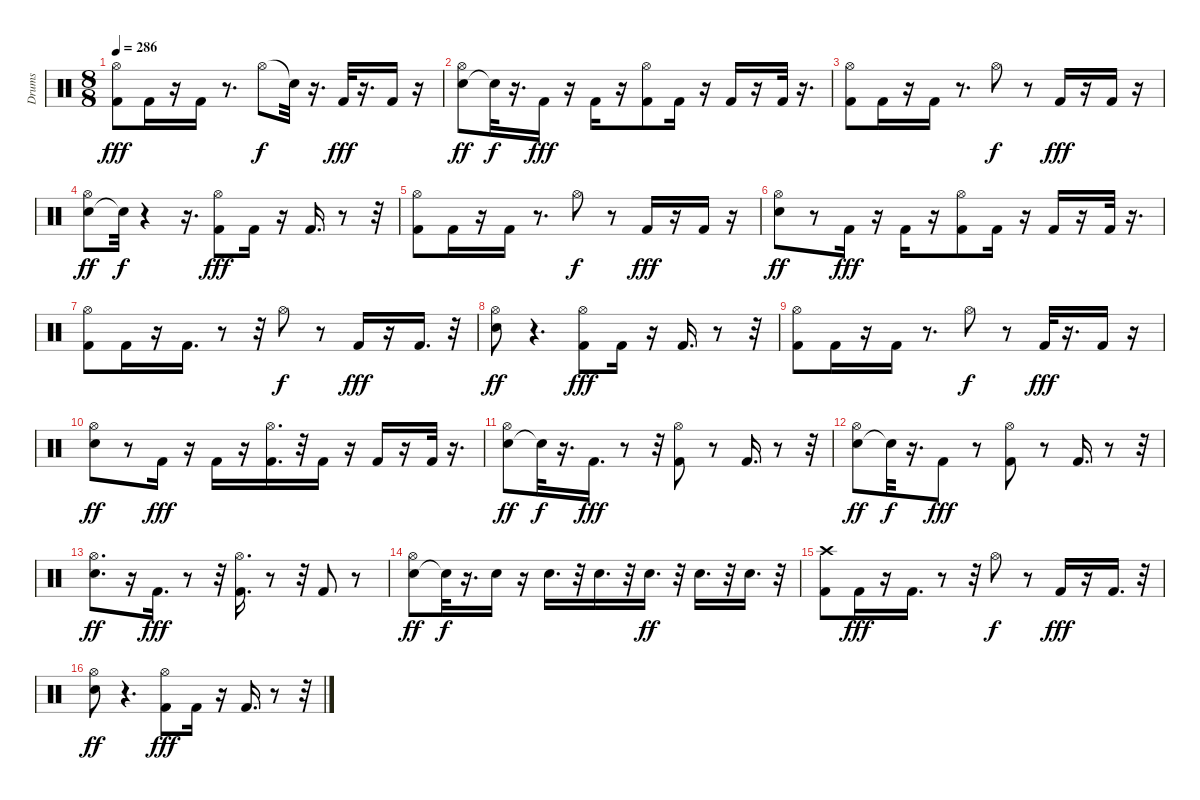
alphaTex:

\track ("Drums" "Drums") {instrument percussion}
\staff {score}
\articulation defaults
\ts (8 8)
\tempo 286
\clef neutral
\ks c
("Kick (hit) 2" "Hi-Hat (open)").8{dy fff} "Kick (hit) 2".16 r.16 "Kick (hit) 2".16 r.8{d} "Hi-Hat (open)".8{dy f} "Snare (hit)"{t}.32 r.16{d} "Kick (hit) 2".32{dy fff} r.16{d} "Kick (hit) 2".16 r.16 |
("Snare (hit) 2" "Hi-Hat (open)").8{dy ff} "Snare (hit)"{t}.32{dy f} r.16{d} "Kick (hit) 2".16{dy fff} r.16 "Kick (hit) 2".16 r.16 ("Kick (hit) 2" "Hi-Hat (open)").8 "Kick (hit) 2".16 r.16 "Kick (hit) 2".16 r.16 "Kick (hit) 2".32 r.16{d} |
("Kick (hit) 2" "Hi-Hat (open)").8 "Kick (hit) 2".16 r.16 "Kick (hit) 2".16 r.8{d} "Hi-Hat (open)".8{dy f} r.8 "Kick (hit) 2".16{dy fff} r.16 "Kick (hit) 2".16 r.16 |
("Snare (hit) 2" "Hi-Hat (open)").8{dy ff} "Snare (hit)"{t}.32{dy f} r.4 r.16{d} ("Kick (hit) 2" "Hi-Hat (open)").8{dy fff} "Kick (hit) 2".16 r.16 "Kick (hit) 2".16{d} r.8 r.32 |
("Kick (hit) 2" "Hi-Hat (open)").8 "Kick (hit) 2".16 r.16 "Kick (hit) 2".16 r.8{d} "Hi-Hat (open)".8{dy f} r.8 "Kick (hit) 2".16{dy fff} r.16 "Kick (hit) 2".16 r.16 |
("Snare (hit) 2" "Hi-Hat (open)").8{dy ff} r.8 "Kick (hit) 2".16{dy fff} r.16 "Kick (hit) 2".16 r.16 ("Kick (hit) 2" "Hi-Hat (open)").8 "Kick (hit) 2".16 r.16 "Kick (hit) 2".16 r.16 "Kick (hit) 2".32 r.16{d} |
("Kick (hit) 2" "Hi-Hat (open)").8 "Kick (hit) 2".16 r.16 "Kick (hit) 2".16{d} r.8 r.32 "Hi-Hat (open)".8{dy f} r.8 "Kick (hit) 2".16{dy fff} r.16 "Kick (hit) 2".16{d} r.32 |
("Snare (hit) 2" "Hi-Hat (open)").8{dy ff} r.4{d} ("Kick (hit) 2" "Hi-Hat (open)").8{dy fff} "Kick (hit) 2".16 r.16 "Kick (hit) 2".16{d} r.8 r.32 |
("Kick (hit) 2" "Hi-Hat (open)").8 "Kick (hit) 2".16 r.16 "Kick (hit) 2".16 r.8{d} "Hi-Hat (open)".8{dy f} r.8 "Kick (hit) 2".32{dy fff} r.16{d} "Kick (hit) 2".16 r.16 |
("Snare (hit) 2" "Hi-Hat (open)").8{dy ff} r.8 "Kick (hit) 2".16{dy fff} r.16 "Kick (hit) 2".16 r.16 ("Kick (hit) 2" "Hi-Hat (open)").16{d} r.32 "Kick (hit) 2".16 r.16 "Kick (hit) 2".16 r.16 "Kick (hit) 2".32 r.16{d} |
("Snare (hit) 2" "Hi-Hat (open)").8{dy ff} "Snare (hit)"{t}.32{dy f} r.16{d} "Kick (hit) 2".16{d dy fff} r.8 r.32 ("Kick (hit) 2" "Hi-Hat (open)").8 r.8 "Kick (hit) 2".16{d} r.8 r.32 |
("Snare (hit) 2" "Hi-Hat (open)").8{dy ff} "Snare (hit)"{t}.32{dy f} r.16{d} "Kick (hit) 2".8{dy fff} r.8 ("Kick (hit) 2" "Hi-Hat (open)").8 r.8 "Kick (hit) 2".16{d} r.8 r.32 |
("Snare (hit) 2" "Hi-Hat (open)").8{d dy ff} r.16 "Kick (hit) 2".16{d dy fff} r.8 r.32 ("Kick (hit) 2" "Hi-Hat (open)").16{d} r.8 r.32 "Kick (hit) 2".8 r.8 |
("Snare (hit) 2" "Hi-Hat (open)").8{dy ff} "Snare (hit)"{t}.32{dy f} r.16{d} "Snare (hit) 2".16 r.16 "Snare (hit) 2".16{d} r.32 "Snare (hit) 2".16{d} r.32 "Snare (hit) 2".16{d dy ff} r.32 "Snare (hit) 2".16{d} r.32 "Snare (hit) 2".16{d} r.32 |
("Kick (hit) 2" "Crash high (hit)").8 "Kick (hit) 2".16{dy fff} r.16 "Kick (hit) 2".16{d} r.8 r.32 "Hi-Hat (open)".8{dy f} r.8 "Kick (hit) 2".16{dy fff} r.16 "Kick (hit) 2".16{d} r.32 |
("Snare (hit) 2" "Hi-Hat (open)").8{dy ff} r.4{d} ("Kick (hit) 2" "Hi-Hat (open)").8{dy fff} "Kick (hit) 2".16 r.16 "Kick (hit) 2".16{d} r.8 r.32
